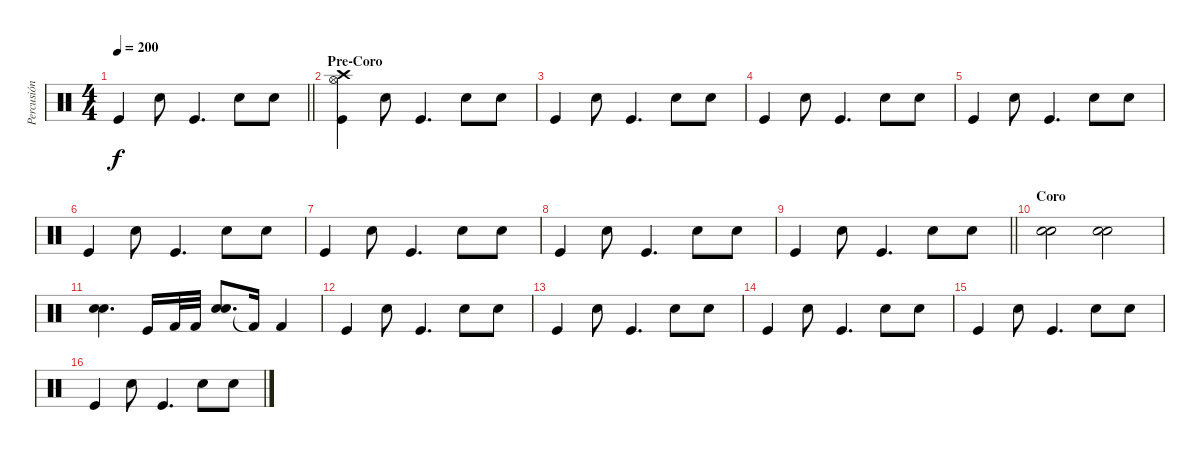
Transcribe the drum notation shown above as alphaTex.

\track ("Percusión" "Percusión") {instrument percussion}
\staff {score}
\articulation defaults
\ts (4 4)
\tempo 200
\clef neutral
\barLineRight lightlight
\ks c "Kick (hit)".4{dy f} "Snare (hit) 2".8 "Kick (hit)".4{d} "Snare (hit) 2".8 "Snare (hit) 2".8
|
\section ("" "Pre-Coro")
("Hi-Hat (open)" "Crash high (hit)" "Kick (hit)").4 "Snare (hit) 2".8 "Kick (hit)".4{d} "Snare (hit) 2".8 "Snare (hit) 2".8 |
"Kick (hit)".4 "Snare (hit) 2".8 "Kick (hit)".4{d} "Snare (hit) 2".8 "Snare (hit) 2".8 |
"Kick (hit)".4 "Snare (hit) 2".8 "Kick (hit)".4{d} "Snare (hit) 2".8 "Snare (hit) 2".8 |
"Kick (hit)".4 "Snare (hit) 2".8 "Kick (hit)".4{d} "Snare (hit) 2".8 "Snare (hit) 2".8 |
"Kick (hit)".4 "Snare (hit) 2".8 "Kick (hit)".4{d} "Snare (hit) 2".8 "Snare (hit) 2".8 |
"Kick (hit)".4 "Snare (hit) 2".8 "Kick (hit)".4{d} "Snare (hit) 2".8 "Snare (hit) 2".8 |
"Kick (hit)".4 "Snare (hit) 2".8 "Kick (hit)".4{d} "Snare (hit) 2".8 "Snare (hit) 2".8 |
\barLineRight lightlight "Kick (hit)".4 "Snare (hit) 2".8 "Kick (hit)".4{d} "Snare (hit) 2".8 "Snare (hit) 2".8
|
\section ("" "Coro")
("Electric Snare (hit)" "Snare (hit) 2").2 ("Electric Snare (hit)" "Snare (hit) 2").2 |
("Electric Snare (hit)" "Snare (hit) 2").4{d} "Kick (hit)".16 "Kick (hit) 2".32 "Kick (hit) 2".32 ("Electric Snare (hit)" "Snare (hit) 2").8{d} "Kick (hit) 2"{t}.16 "Kick (hit) 2".4 |
"Kick (hit)".4 "Snare (hit) 2".8 "Kick (hit)".4{d} "Snare (hit) 2".8 "Snare (hit) 2".8 |
"Kick (hit)".4 "Snare (hit) 2".8 "Kick (hit)".4{d} "Snare (hit) 2".8 "Snare (hit) 2".8 |
"Kick (hit)".4 "Snare (hit) 2".8 "Kick (hit)".4{d} "Snare (hit) 2".8 "Snare (hit) 2".8 |
"Kick (hit)".4 "Snare (hit) 2".8 "Kick (hit)".4{d} "Snare (hit) 2".8 "Snare (hit) 2".8 |
"Kick (hit)".4 "Snare (hit) 2".8 "Kick (hit)".4{d} "Snare (hit) 2".8 "Snare (hit) 2".8
